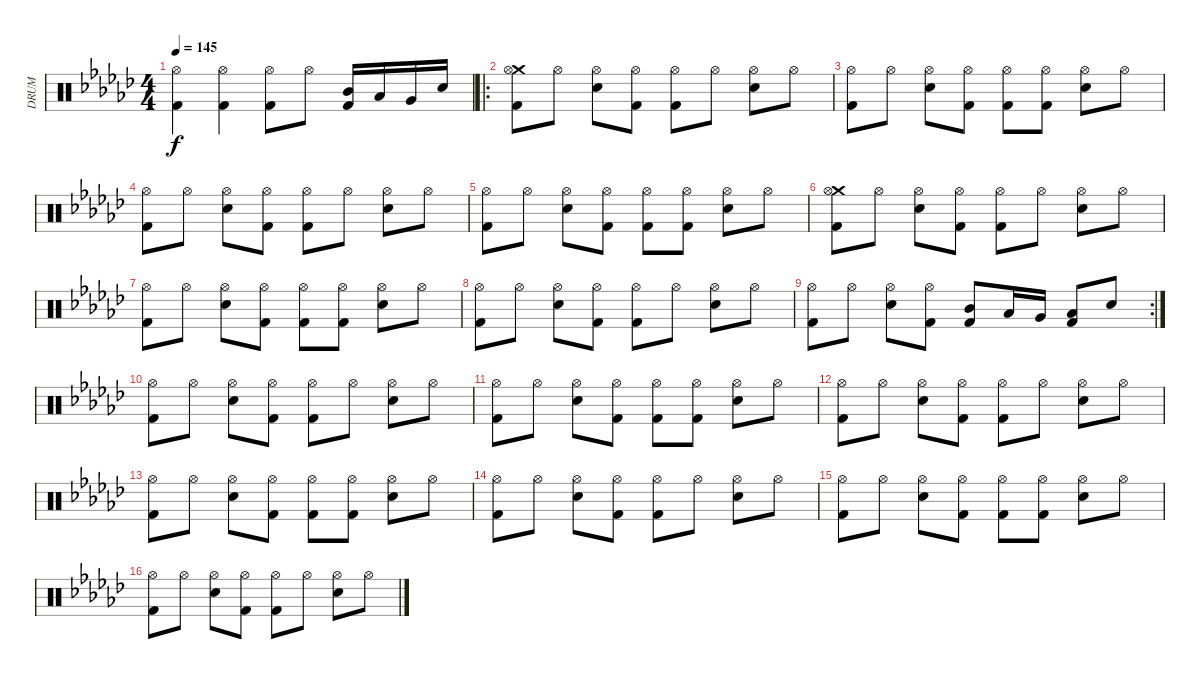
\track ("DRUM" "DRUM") {instrument percussion}
\staff {score}
\articulation defaults
\ts (4 4)
\tempo 145
\clef neutral
\ks ebminor
("Hi-Hat (open)" "Kick (hit) 2").4{dy f} ("Hi-Hat (open)" "Kick (hit) 2").4 ("Hi-Hat (open)" "Kick (hit) 2").8 "Hi-Hat (open)".8 ("Mid Tom (hit)" "Kick (hit) 2").16 "Low Tom (hit)".16 "Very Low Tom (hit)".16 "Electric Snare (hit)".16 |
\ro
("Crash medium (hit)" "Hi-Hat (open)" "Kick (hit) 2").8 "Hi-Hat (open)".8 ("Hi-Hat (open)" "Electric Snare (hit)").8 ("Hi-Hat (open)" "Kick (hit) 2").8 ("Hi-Hat (open)" "Kick (hit) 2").8 "Hi-Hat (open)".8 ("Hi-Hat (open)" "Electric Snare (hit)").8 "Hi-Hat (open)".8 |
("Hi-Hat (open)" "Kick (hit) 2").8 "Hi-Hat (open)".8 ("Hi-Hat (open)" "Electric Snare (hit)").8 ("Hi-Hat (open)" "Kick (hit) 2").8 ("Hi-Hat (open)" "Kick (hit) 2").8 ("Hi-Hat (open)" "Kick (hit) 2").8 ("Hi-Hat (open)" "Electric Snare (hit)").8 "Hi-Hat (open)".8 |
("Hi-Hat (open)" "Kick (hit) 2").8 "Hi-Hat (open)".8 ("Hi-Hat (open)" "Electric Snare (hit)").8 ("Hi-Hat (open)" "Kick (hit) 2").8 ("Hi-Hat (open)" "Kick (hit) 2").8 "Hi-Hat (open)".8 ("Hi-Hat (open)" "Electric Snare (hit)").8 "Hi-Hat (open)".8 |
("Hi-Hat (open)" "Kick (hit) 2").8 "Hi-Hat (open)".8 ("Hi-Hat (open)" "Electric Snare (hit)").8 ("Hi-Hat (open)" "Kick (hit) 2").8 ("Hi-Hat (open)" "Kick (hit) 2").8 ("Hi-Hat (open)" "Kick (hit) 2").8 ("Hi-Hat (open)" "Electric Snare (hit)").8 "Hi-Hat (open)".8 |
("Crash medium (hit)" "Hi-Hat (open)" "Kick (hit) 2").8 "Hi-Hat (open)".8 ("Hi-Hat (open)" "Electric Snare (hit)").8 ("Hi-Hat (open)" "Kick (hit) 2").8 ("Hi-Hat (open)" "Kick (hit) 2").8 "Hi-Hat (open)".8 ("Hi-Hat (open)" "Electric Snare (hit)").8 "Hi-Hat (open)".8 |
("Hi-Hat (open)" "Kick (hit) 2").8 "Hi-Hat (open)".8 ("Hi-Hat (open)" "Electric Snare (hit)").8 ("Hi-Hat (open)" "Kick (hit) 2").8 ("Hi-Hat (open)" "Kick (hit) 2").8 ("Hi-Hat (open)" "Kick (hit) 2").8 ("Hi-Hat (open)" "Electric Snare (hit)").8 "Hi-Hat (open)".8 |
("Hi-Hat (open)" "Kick (hit) 2").8 "Hi-Hat (open)".8 ("Hi-Hat (open)" "Electric Snare (hit)").8 ("Hi-Hat (open)" "Kick (hit) 2").8 ("Hi-Hat (open)" "Kick (hit) 2").8 "Hi-Hat (open)".8 ("Hi-Hat (open)" "Electric Snare (hit)").8 "Hi-Hat (open)".8 |
\rc 2
("Hi-Hat (open)" "Kick (hit) 2").8 "Hi-Hat (open)".8 ("Hi-Hat (open)" "Electric Snare (hit)").8 ("Hi-Hat (open)" "Kick (hit) 2").8 ("Mid Tom (hit)" "Kick (hit) 2").8 "Low Tom (hit)".16 "Very Low Tom (hit)".16 ("Low Floor Tom (hit)" "Kick (hit) 2").8 "Electric Snare (hit)".8 |
("Hi-Hat (open)" "Kick (hit) 2").8 "Hi-Hat (open)".8 ("Hi-Hat (open)" "Electric Snare (hit)").8 ("Hi-Hat (open)" "Kick (hit) 2").8 ("Hi-Hat (open)" "Kick (hit) 2").8 "Hi-Hat (open)".8 ("Hi-Hat (open)" "Electric Snare (hit)").8 "Hi-Hat (open)".8 |
("Hi-Hat (open)" "Kick (hit) 2").8 "Hi-Hat (open)".8 ("Hi-Hat (open)" "Electric Snare (hit)").8 ("Hi-Hat (open)" "Kick (hit) 2").8 ("Hi-Hat (open)" "Kick (hit) 2").8 ("Hi-Hat (open)" "Kick (hit) 2").8 ("Hi-Hat (open)" "Electric Snare (hit)").8 "Hi-Hat (open)".8 |
("Hi-Hat (open)" "Kick (hit) 2").8 "Hi-Hat (open)".8 ("Hi-Hat (open)" "Electric Snare (hit)").8 ("Hi-Hat (open)" "Kick (hit) 2").8 ("Hi-Hat (open)" "Kick (hit) 2").8 "Hi-Hat (open)".8 ("Hi-Hat (open)" "Electric Snare (hit)").8 "Hi-Hat (open)".8 |
("Hi-Hat (open)" "Kick (hit) 2").8 "Hi-Hat (open)".8 ("Hi-Hat (open)" "Electric Snare (hit)").8 ("Hi-Hat (open)" "Kick (hit) 2").8 ("Hi-Hat (open)" "Kick (hit) 2").8 ("Hi-Hat (open)" "Kick (hit) 2").8 ("Hi-Hat (open)" "Electric Snare (hit)").8 "Hi-Hat (open)".8 |
("Hi-Hat (open)" "Kick (hit) 2").8 "Hi-Hat (open)".8 ("Hi-Hat (open)" "Electric Snare (hit)").8 ("Hi-Hat (open)" "Kick (hit) 2").8 ("Hi-Hat (open)" "Kick (hit) 2").8 "Hi-Hat (open)".8 ("Hi-Hat (open)" "Electric Snare (hit)").8 "Hi-Hat (open)".8 |
("Hi-Hat (open)" "Kick (hit) 2").8 "Hi-Hat (open)".8 ("Hi-Hat (open)" "Electric Snare (hit)").8 ("Hi-Hat (open)" "Kick (hit) 2").8 ("Hi-Hat (open)" "Kick (hit) 2").8 ("Hi-Hat (open)" "Kick (hit) 2").8 ("Hi-Hat (open)" "Electric Snare (hit)").8 "Hi-Hat (open)".8 |
("Hi-Hat (open)" "Kick (hit) 2").8 "Hi-Hat (open)".8 ("Hi-Hat (open)" "Electric Snare (hit)").8 ("Hi-Hat (open)" "Kick (hit) 2").8 ("Hi-Hat (open)" "Kick (hit) 2").8 "Hi-Hat (open)".8 ("Hi-Hat (open)" "Electric Snare (hit)").8 "Hi-Hat (open)".8
